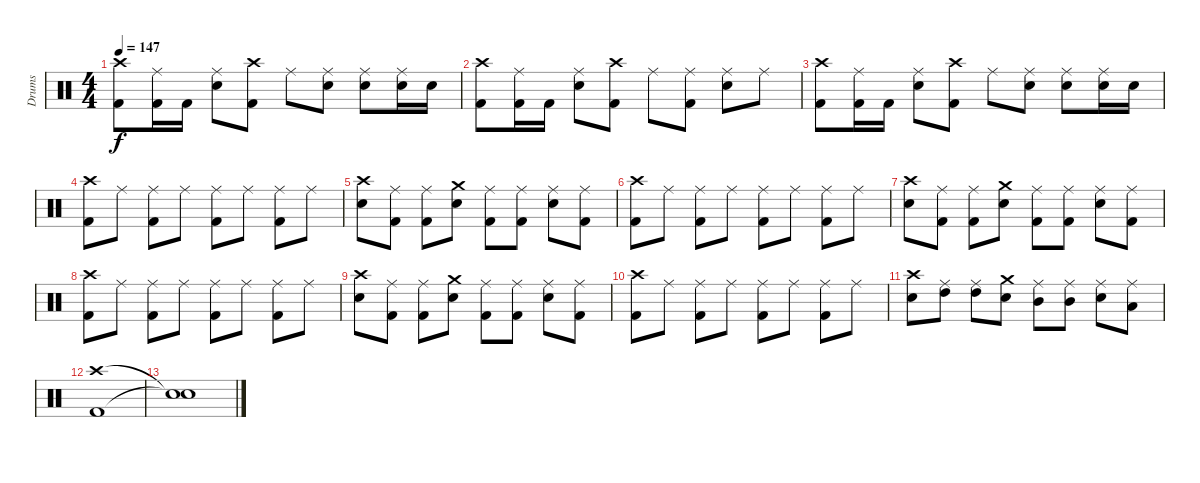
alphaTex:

\track ("Drums" "Drums") {instrument percussion}
\staff {score}
\articulation defaults
\ts (4 4)
\tempo 147
\clef neutral
\ks c
("Kick (hit) 2" "Crash high (hit)").8{dy f} ("Ride (middle)" "Kick (hit) 2").16 "Kick (hit) 2".16 ("Electric Snare (hit)" "Ride (middle)").8 ("Crash high (hit)" "Kick (hit) 2").8 "Ride (middle)".8 ("Ride (middle)" "Electric Snare (hit)").8 ("Electric Snare (hit)" "Ride (middle)").8 ("Ride (middle)" "Electric Snare (hit)").16 "Electric Snare (hit)".16 |
("Kick (hit) 2" "Crash high (hit)").8 ("Ride (middle)" "Kick (hit) 2").16 "Kick (hit) 2".16 ("Electric Snare (hit)" "Ride (middle)").8 ("Crash high (hit)" "Kick (hit) 2").8 "Ride (middle)".8 ("Ride (middle)" "Kick (hit) 2").8 ("Electric Snare (hit)" "Ride (middle)").8 "Ride (middle)".8 |
("Kick (hit) 2" "Crash high (hit)").8 ("Ride (middle)" "Kick (hit) 2").16 "Kick (hit) 2".16 ("Electric Snare (hit)" "Ride (middle)").8 ("Crash high (hit)" "Kick (hit) 2").8 "Ride (middle)".8 ("Ride (middle)" "Electric Snare (hit)").8 ("Electric Snare (hit)" "Ride (middle)").8 ("Ride (middle)" "Electric Snare (hit)").16 "Electric Snare (hit)".16 |
("Kick (hit) 2" "Crash high (hit)").8 "Ride (middle)".8 ("Kick (hit) 2" "Ride (middle)").8 "Ride (middle)".8 ("Kick (hit) 2" "Ride (middle)").8 "Ride (middle)".8 ("Kick (hit) 2" "Ride (middle)").8 "Ride (middle)".8 |
("Electric Snare (hit)" "Crash high (hit)").8 ("Ride (middle)" "Kick (hit) 2").8 ("Kick (hit) 2" "Ride (middle)").8 ("Crash medium (hit)" "Electric Snare (hit)").8 ("Kick (hit) 2" "Ride (middle)").8 ("Ride (middle)" "Kick (hit) 2").8 ("Electric Snare (hit)" "Ride (middle)").8 ("Ride (middle)" "Kick (hit) 2").8 |
("Kick (hit) 2" "Crash high (hit)").8 "Ride (middle)".8 ("Kick (hit) 2" "Ride (middle)").8 "Ride (middle)".8 ("Kick (hit) 2" "Ride (middle)").8 "Ride (middle)".8 ("Kick (hit) 2" "Ride (middle)").8 "Ride (middle)".8 |
("Electric Snare (hit)" "Crash high (hit)").8 ("Ride (middle)" "Kick (hit) 2").8 ("Kick (hit) 2" "Ride (middle)").8 ("Crash medium (hit)" "Electric Snare (hit)").8 ("Kick (hit) 2" "Ride (middle)").8 ("Ride (middle)" "Kick (hit) 2").8 ("Electric Snare (hit)" "Ride (middle)").8 ("Ride (middle)" "Kick (hit) 2").8 |
("Kick (hit) 2" "Crash high (hit)").8 "Ride (middle)".8 ("Kick (hit) 2" "Ride (middle)").8 "Ride (middle)".8 ("Kick (hit) 2" "Ride (middle)").8 "Ride (middle)".8 ("Kick (hit) 2" "Ride (middle)").8 "Ride (middle)".8 |
("Electric Snare (hit)" "Crash high (hit)").8 ("Ride (middle)" "Kick (hit) 2").8 ("Kick (hit) 2" "Ride (middle)").8 ("Crash medium (hit)" "Electric Snare (hit)").8 ("Kick (hit) 2" "Ride (middle)").8 ("Ride (middle)" "Kick (hit) 2").8 ("Electric Snare (hit)" "Ride (middle)").8 ("Ride (middle)" "Kick (hit) 2").8 |
("Kick (hit) 2" "Crash high (hit)").8 "Ride (middle)".8 ("Kick (hit) 2" "Ride (middle)").8 "Ride (middle)".8 ("Kick (hit) 2" "Ride (middle)").8 "Ride (middle)".8 ("Kick (hit) 2" "Ride (middle)").8 "Ride (middle)".8 |
("Electric Snare (hit)" "Crash high (hit)").8 ("Ride (middle)" "High Tom (hit)").8 ("High Tom (hit)" "Ride (middle)").8 ("Crash medium (hit)" "Electric Snare (hit)").8 ("Mid Tom (hit)" "Ride (middle)").8 ("Ride (middle)" "Mid Tom (hit)").8 ("Electric Snare (hit)" "Ride (middle)").8 ("Ride (middle)" "Low Tom (hit)").8 |
("Kick (hit) 2" "Crash high (hit)").1 |
("Snare (hit)"{t} "Snare (hit)"{t}).1
